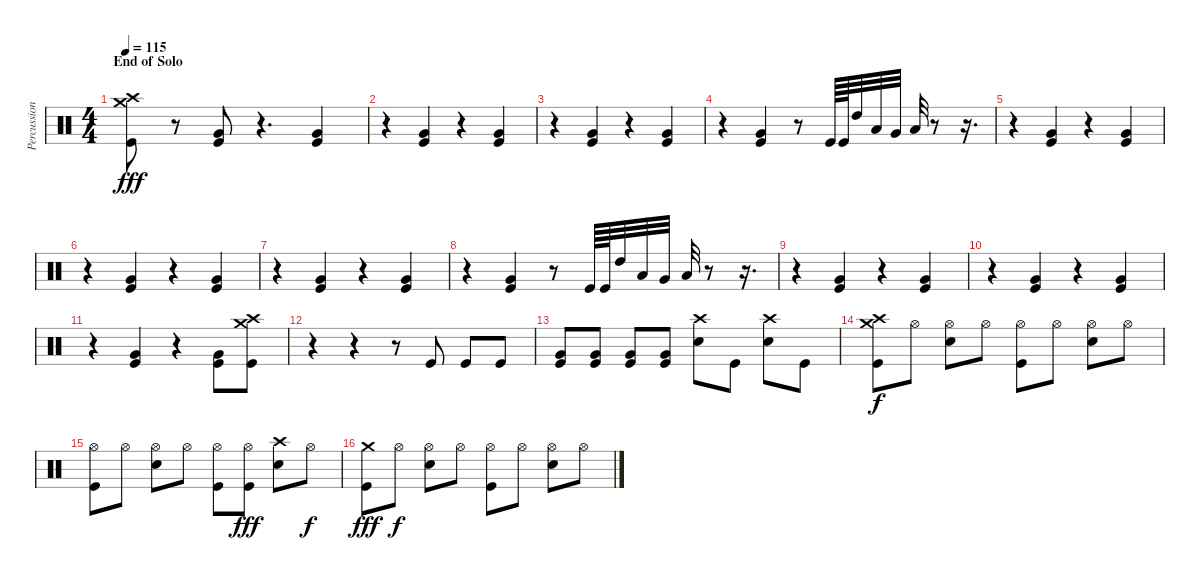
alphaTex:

\track ("Percussion" "Percussion") {instrument percussion}
\staff {score}
\articulation defaults
\ts (4 4)
\section ("" "End of Solo")
\tempo 115
\clef neutral
\ks c
("Crash medium (hit)" "Crash high (hit)" "Kick (hit)").8{dy fff} r.8 ("Very Low Tom (hit)" "Kick (hit)").8 r.4{d} ("Very Low Tom (hit)" "Kick (hit)").4 |
r.4 ("Very Low Tom (hit)" "Kick (hit)").4 r.4 ("Very Low Tom (hit)" "Kick (hit)").4 |
r.4 ("Very Low Tom (hit)" "Kick (hit)").4 r.4 ("Very Low Tom (hit)" "Kick (hit)").4 |
r.4 ("Very Low Tom (hit)" "Kick (hit)").4 r.8 "Kick (hit)".64 "Kick (hit)".64 "High Tom (hit)".32 "Low Tom (hit)".32 "Very Low Tom (hit)".32 "Low Floor Tom (hit)".32 r.8 r.16{d} |
r.4 ("Very Low Tom (hit)" "Kick (hit)").4 r.4 ("Very Low Tom (hit)" "Kick (hit)").4 |
r.4 ("Very Low Tom (hit)" "Kick (hit)").4 r.4 ("Very Low Tom (hit)" "Kick (hit)").4 |
r.4 ("Very Low Tom (hit)" "Kick (hit)").4 r.4 ("Very Low Tom (hit)" "Kick (hit)").4 |
r.4 ("Very Low Tom (hit)" "Kick (hit)").4 r.8 "Kick (hit)".64 "Kick (hit)".64 "High Tom (hit)".32 "Low Tom (hit)".32 "Very Low Tom (hit)".32 "Low Floor Tom (hit)".32 r.8 r.16{d} |
r.4 ("Very Low Tom (hit)" "Kick (hit)").4 r.4 ("Very Low Tom (hit)" "Kick (hit)").4 |
r.4 ("Very Low Tom (hit)" "Kick (hit)").4 r.4 ("Very Low Tom (hit)" "Kick (hit)").4 |
r.4 ("Very Low Tom (hit)" "Kick (hit)").4 r.4 ("Very Low Tom (hit)" "Kick (hit)").8 ("Crash high (hit)" "Crash medium (hit)" "Kick (hit)").8 |
r.4 r.4 r.8 "Kick (hit)".8 "Kick (hit)".8 "Kick (hit)".8 |
("Very Low Tom (hit)" "Kick (hit)").8 ("Very Low Tom (hit)" "Kick (hit)").8 ("Very Low Tom (hit)" "Kick (hit)").8 ("Very Low Tom (hit)" "Kick (hit)").8 ("Crash high (hit)" "Electric Snare (hit)").8 "Kick (hit)".8 ("Crash high (hit)" "Electric Snare (hit)").8 "Kick (hit)".8 |
("Crash high (hit)" "Crash medium (hit)" "Kick (hit)").8{dy f} "Hi-Hat (open)".8 ("Hi-Hat (open)" "Electric Snare (hit)").8 "Hi-Hat (open)".8 ("Hi-Hat (open)" "Kick (hit)").8 "Hi-Hat (open)".8 ("Hi-Hat (open)" "Electric Snare (hit)").8 "Hi-Hat (open)".8 |
("Hi-Hat (open)" "Kick (hit)").8 "Hi-Hat (open)".8 ("Hi-Hat (open)" "Electric Snare (hit)").8 "Hi-Hat (open)".8 ("Hi-Hat (open)" "Kick (hit)").8 ("Hi-Hat (open)" "Kick (hit)").8{dy fff} ("Crash high (hit)" "Electric Snare (hit)").8 "Hi-Hat (open)".8{dy f} |
("Crash medium (hit)" "Kick (hit)").8{dy fff} "Hi-Hat (open)".8{dy f} ("Hi-Hat (open)" "Electric Snare (hit)").8 "Hi-Hat (open)".8 ("Hi-Hat (open)" "Kick (hit)").8 "Hi-Hat (open)".8 ("Hi-Hat (open)" "Electric Snare (hit)").8 "Hi-Hat (open)".8
